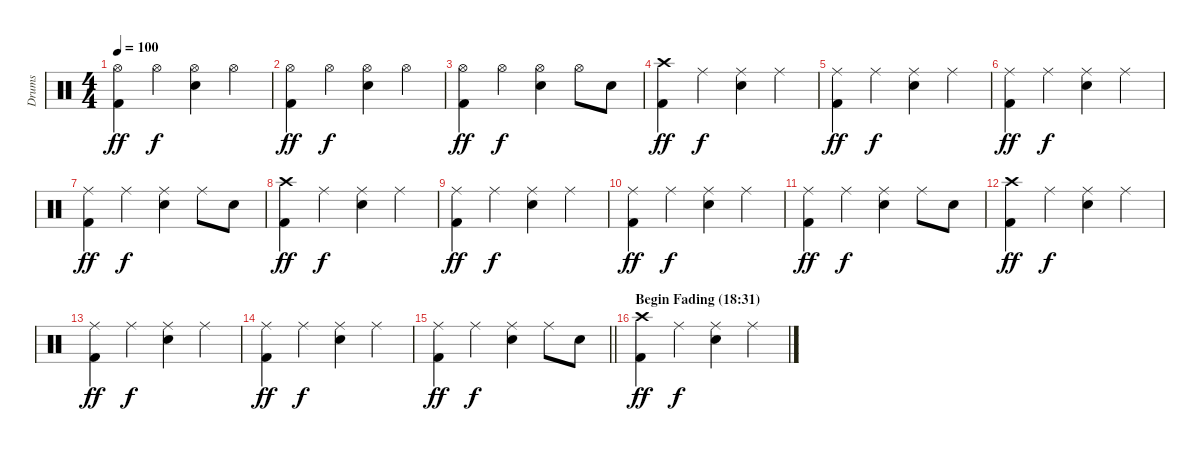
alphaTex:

\track ("Drums" "Drums") {instrument percussion}
\staff {score}
\articulation defaults
\ts (4 4)
\tempo 100
\clef neutral
\ks c
("Hi-Hat (open)" "Kick (hit) 2").4{dy ff} "Hi-Hat (open)".4{dy f} ("Hi-Hat (open)" "Electric Snare (hit)").4 "Hi-Hat (open)".4 |
("Hi-Hat (open)" "Kick (hit) 2").4{dy ff} "Hi-Hat (open)".4{dy f} ("Hi-Hat (open)" "Electric Snare (hit)").4 "Hi-Hat (open)".4 |
("Hi-Hat (open)" "Kick (hit) 2").4{dy ff} "Hi-Hat (open)".4{dy f} ("Hi-Hat (open)" "Electric Snare (hit)").4 "Hi-Hat (open)".8 "Electric Snare (hit)".8 |
("Crash high (hit)" "Kick (hit) 2").4{dy ff} "Ride (middle)".4{dy f} ("Ride (middle)" "Electric Snare (hit)").4 "Ride (middle)".4 |
("Ride (middle)" "Kick (hit) 2").4{dy ff} "Ride (middle)".4{dy f} ("Ride (middle)" "Electric Snare (hit)").4 "Ride (middle)".4 |
("Ride (middle)" "Kick (hit) 2").4{dy ff} "Ride (middle)".4{dy f} ("Ride (middle)" "Electric Snare (hit)").4 "Ride (middle)".4 |
("Ride (middle)" "Kick (hit) 2").4{dy ff} "Ride (middle)".4{dy f} ("Ride (middle)" "Electric Snare (hit)").4 "Ride (middle)".8 "Electric Snare (hit)".8 |
("Crash high (hit)" "Kick (hit) 2").4{dy ff} "Ride (middle)".4{dy f} ("Ride (middle)" "Electric Snare (hit)").4 "Ride (middle)".4 |
("Ride (middle)" "Kick (hit) 2").4{dy ff} "Ride (middle)".4{dy f} ("Ride (middle)" "Electric Snare (hit)").4 "Ride (middle)".4 |
("Ride (middle)" "Kick (hit) 2").4{dy ff} "Ride (middle)".4{dy f} ("Ride (middle)" "Electric Snare (hit)").4 "Ride (middle)".4 |
("Ride (middle)" "Kick (hit) 2").4{dy ff} "Ride (middle)".4{dy f} ("Ride (middle)" "Electric Snare (hit)").4 "Ride (middle)".8 "Electric Snare (hit)".8 |
("Crash high (hit)" "Kick (hit) 2").4{dy ff} "Ride (middle)".4{dy f} ("Ride (middle)" "Electric Snare (hit)").4 "Ride (middle)".4 |
("Ride (middle)" "Kick (hit) 2").4{dy ff} "Ride (middle)".4{dy f} ("Ride (middle)" "Electric Snare (hit)").4 "Ride (middle)".4 |
("Ride (middle)" "Kick (hit) 2").4{dy ff} "Ride (middle)".4{dy f} ("Ride (middle)" "Electric Snare (hit)").4 "Ride (middle)".4 |
\barLineRight lightlight
("Ride (middle)" "Kick (hit) 2").4{dy ff} "Ride (middle)".4{dy f} ("Ride (middle)" "Electric Snare (hit)").4 "Ride (middle)".8 "Electric Snare (hit)".8 |
\section ("" "Begin Fading (18:31)")
("Crash high (hit)" "Kick (hit) 2").4{dy ff volume 14} "Ride (middle)".4{dy f} ("Ride (middle)" "Electric Snare (hit)").4 "Ride (middle)".4
